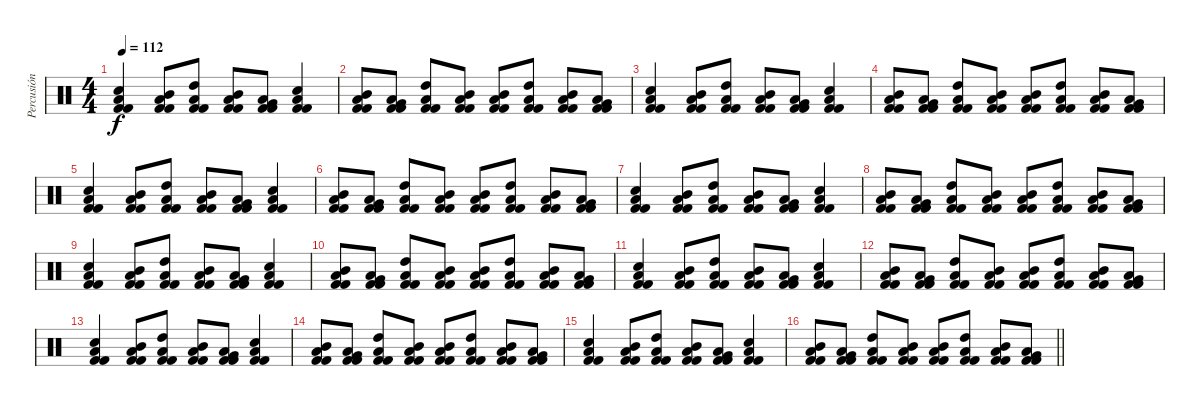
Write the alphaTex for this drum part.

\track ("Percusión" "Percusión") {instrument percussion}
\staff {score}
\articulation defaults
\ts (4 4)
\tempo 112
\clef neutral
\ks c
("Kick (hit) 2" "Electric Snare (hit)" "Low Tom (hit)" "Kick (hit) 2").4{dy f} ("Kick (hit) 2" "Mid Tom (hit)" "Low Tom (hit)" "Kick (hit) 2").8 ("Kick (hit) 2" "High Tom (hit)" "Low Tom (hit)" "Kick (hit) 2").8 ("Kick (hit) 2" "Mid Tom (hit)" "Low Tom (hit)" "Kick (hit) 2").8 ("Kick (hit) 2" "Low Tom (hit)" "Very Low Tom (hit)" "Kick (hit) 2").8 ("Kick (hit) 2" "Electric Snare (hit)" "Low Tom (hit)" "Kick (hit) 2").4 |
("Kick (hit) 2" "Low Tom (hit)" "Mid Tom (hit)" "Kick (hit) 2").8 ("Kick (hit) 2" "Very Low Tom (hit)" "Low Tom (hit)" "Kick (hit) 2").8 ("Kick (hit) 2" "High Tom (hit)" "Low Tom (hit)" "Kick (hit) 2").8 ("Kick (hit) 2" "Low Tom (hit)" "Mid Tom (hit)" "Kick (hit) 2").8 ("Kick (hit) 2" "Low Tom (hit)" "Mid Tom (hit)" "Kick (hit) 2").8 ("Kick (hit) 2" "High Tom (hit)" "Low Tom (hit)" "Kick (hit) 2").8 ("Kick (hit) 2" "Low Tom (hit)" "Mid Tom (hit)" "Kick (hit) 2").8 ("Kick (hit) 2" "Very Low Tom (hit)" "Low Tom (hit)" "Kick (hit) 2").8 |
("Kick (hit) 2" "Electric Snare (hit)" "Low Tom (hit)" "Kick (hit) 2").4 ("Kick (hit) 2" "Mid Tom (hit)" "Low Tom (hit)" "Kick (hit) 2").8 ("Kick (hit) 2" "High Tom (hit)" "Low Tom (hit)" "Kick (hit) 2").8 ("Kick (hit) 2" "Mid Tom (hit)" "Low Tom (hit)" "Kick (hit) 2").8 ("Kick (hit) 2" "Low Tom (hit)" "Very Low Tom (hit)" "Kick (hit) 2").8 ("Kick (hit) 2" "Electric Snare (hit)" "Low Tom (hit)" "Kick (hit) 2").4 |
("Kick (hit) 2" "Low Tom (hit)" "Mid Tom (hit)" "Kick (hit) 2").8 ("Kick (hit) 2" "Very Low Tom (hit)" "Low Tom (hit)" "Kick (hit) 2").8 ("Kick (hit) 2" "High Tom (hit)" "Low Tom (hit)" "Kick (hit) 2").8 ("Kick (hit) 2" "Low Tom (hit)" "Mid Tom (hit)" "Kick (hit) 2").8 ("Kick (hit) 2" "Low Tom (hit)" "Mid Tom (hit)" "Kick (hit) 2").8 ("Kick (hit) 2" "High Tom (hit)" "Low Tom (hit)" "Kick (hit) 2").8 ("Kick (hit) 2" "Low Tom (hit)" "Mid Tom (hit)" "Kick (hit) 2").8 ("Kick (hit) 2" "Very Low Tom (hit)" "Low Tom (hit)" "Kick (hit) 2").8 |
("Kick (hit) 2" "Electric Snare (hit)" "Low Tom (hit)" "Kick (hit) 2").4 ("Kick (hit) 2" "Mid Tom (hit)" "Low Tom (hit)" "Kick (hit) 2").8 ("Kick (hit) 2" "High Tom (hit)" "Low Tom (hit)" "Kick (hit) 2").8 ("Kick (hit) 2" "Mid Tom (hit)" "Low Tom (hit)" "Kick (hit) 2").8 ("Kick (hit) 2" "Low Tom (hit)" "Very Low Tom (hit)" "Kick (hit) 2").8 ("Kick (hit) 2" "Electric Snare (hit)" "Low Tom (hit)" "Kick (hit) 2").4 |
("Kick (hit) 2" "Low Tom (hit)" "Mid Tom (hit)" "Kick (hit) 2").8 ("Kick (hit) 2" "Very Low Tom (hit)" "Low Tom (hit)" "Kick (hit) 2").8 ("Kick (hit) 2" "High Tom (hit)" "Low Tom (hit)" "Kick (hit) 2").8 ("Kick (hit) 2" "Low Tom (hit)" "Mid Tom (hit)" "Kick (hit) 2").8 ("Kick (hit) 2" "Low Tom (hit)" "Mid Tom (hit)" "Kick (hit) 2").8 ("Kick (hit) 2" "High Tom (hit)" "Low Tom (hit)" "Kick (hit) 2").8 ("Kick (hit) 2" "Low Tom (hit)" "Mid Tom (hit)" "Kick (hit) 2").8 ("Kick (hit) 2" "Very Low Tom (hit)" "Low Tom (hit)" "Kick (hit) 2").8 |
("Kick (hit) 2" "Electric Snare (hit)" "Low Tom (hit)" "Kick (hit) 2").4 ("Kick (hit) 2" "Mid Tom (hit)" "Low Tom (hit)" "Kick (hit) 2").8 ("Kick (hit) 2" "High Tom (hit)" "Low Tom (hit)" "Kick (hit) 2").8 ("Kick (hit) 2" "Mid Tom (hit)" "Low Tom (hit)" "Kick (hit) 2").8 ("Kick (hit) 2" "Low Tom (hit)" "Very Low Tom (hit)" "Kick (hit) 2").8 ("Kick (hit) 2" "Electric Snare (hit)" "Low Tom (hit)" "Kick (hit) 2").4 |
("Kick (hit) 2" "Low Tom (hit)" "Mid Tom (hit)" "Kick (hit) 2").8 ("Kick (hit) 2" "Very Low Tom (hit)" "Low Tom (hit)" "Kick (hit) 2").8 ("Kick (hit) 2" "High Tom (hit)" "Low Tom (hit)" "Kick (hit) 2").8 ("Kick (hit) 2" "Low Tom (hit)" "Mid Tom (hit)" "Kick (hit) 2").8 ("Kick (hit) 2" "Low Tom (hit)" "Mid Tom (hit)" "Kick (hit) 2").8 ("Kick (hit) 2" "High Tom (hit)" "Low Tom (hit)" "Kick (hit) 2").8 ("Kick (hit) 2" "Low Tom (hit)" "Mid Tom (hit)" "Kick (hit) 2").8 ("Kick (hit) 2" "Very Low Tom (hit)" "Low Tom (hit)" "Kick (hit) 2").8 |
("Kick (hit) 2" "Electric Snare (hit)" "Low Tom (hit)" "Kick (hit) 2").4 ("Kick (hit) 2" "Mid Tom (hit)" "Low Tom (hit)" "Kick (hit) 2").8 ("Kick (hit) 2" "High Tom (hit)" "Low Tom (hit)" "Kick (hit) 2").8 ("Kick (hit) 2" "Mid Tom (hit)" "Low Tom (hit)" "Kick (hit) 2").8 ("Kick (hit) 2" "Low Tom (hit)" "Very Low Tom (hit)" "Kick (hit) 2").8 ("Kick (hit) 2" "Electric Snare (hit)" "Low Tom (hit)" "Kick (hit) 2").4 |
("Kick (hit) 2" "Low Tom (hit)" "Mid Tom (hit)" "Kick (hit) 2").8 ("Kick (hit) 2" "Very Low Tom (hit)" "Low Tom (hit)" "Kick (hit) 2").8 ("Kick (hit) 2" "High Tom (hit)" "Low Tom (hit)" "Kick (hit) 2").8 ("Kick (hit) 2" "Low Tom (hit)" "Mid Tom (hit)" "Kick (hit) 2").8 ("Kick (hit) 2" "Low Tom (hit)" "Mid Tom (hit)" "Kick (hit) 2").8 ("Kick (hit) 2" "High Tom (hit)" "Low Tom (hit)" "Kick (hit) 2").8 ("Kick (hit) 2" "Low Tom (hit)" "Mid Tom (hit)" "Kick (hit) 2").8 ("Kick (hit) 2" "Very Low Tom (hit)" "Low Tom (hit)" "Kick (hit) 2").8 |
("Kick (hit) 2" "Electric Snare (hit)" "Low Tom (hit)" "Kick (hit) 2").4 ("Kick (hit) 2" "Mid Tom (hit)" "Low Tom (hit)" "Kick (hit) 2").8 ("Kick (hit) 2" "High Tom (hit)" "Low Tom (hit)" "Kick (hit) 2").8 ("Kick (hit) 2" "Mid Tom (hit)" "Low Tom (hit)" "Kick (hit) 2").8 ("Kick (hit) 2" "Low Tom (hit)" "Very Low Tom (hit)" "Kick (hit) 2").8 ("Kick (hit) 2" "Electric Snare (hit)" "Low Tom (hit)" "Kick (hit) 2").4 |
("Kick (hit) 2" "Low Tom (hit)" "Mid Tom (hit)" "Kick (hit) 2").8 ("Kick (hit) 2" "Very Low Tom (hit)" "Low Tom (hit)" "Kick (hit) 2").8 ("Kick (hit) 2" "High Tom (hit)" "Low Tom (hit)" "Kick (hit) 2").8 ("Kick (hit) 2" "Low Tom (hit)" "Mid Tom (hit)" "Kick (hit) 2").8 ("Kick (hit) 2" "Low Tom (hit)" "Mid Tom (hit)" "Kick (hit) 2").8 ("Kick (hit) 2" "High Tom (hit)" "Low Tom (hit)" "Kick (hit) 2").8 ("Kick (hit) 2" "Low Tom (hit)" "Mid Tom (hit)" "Kick (hit) 2").8 ("Kick (hit) 2" "Very Low Tom (hit)" "Low Tom (hit)" "Kick (hit) 2").8 |
("Kick (hit) 2" "Electric Snare (hit)" "Low Tom (hit)" "Kick (hit) 2").4 ("Kick (hit) 2" "Mid Tom (hit)" "Low Tom (hit)" "Kick (hit) 2").8 ("Kick (hit) 2" "High Tom (hit)" "Low Tom (hit)" "Kick (hit) 2").8 ("Kick (hit) 2" "Mid Tom (hit)" "Low Tom (hit)" "Kick (hit) 2").8 ("Kick (hit) 2" "Low Tom (hit)" "Very Low Tom (hit)" "Kick (hit) 2").8 ("Kick (hit) 2" "Electric Snare (hit)" "Low Tom (hit)" "Kick (hit) 2").4 |
("Kick (hit) 2" "Low Tom (hit)" "Mid Tom (hit)" "Kick (hit) 2").8 ("Kick (hit) 2" "Very Low Tom (hit)" "Low Tom (hit)" "Kick (hit) 2").8 ("Kick (hit) 2" "High Tom (hit)" "Low Tom (hit)" "Kick (hit) 2").8 ("Kick (hit) 2" "Low Tom (hit)" "Mid Tom (hit)" "Kick (hit) 2").8 ("Kick (hit) 2" "Low Tom (hit)" "Mid Tom (hit)" "Kick (hit) 2").8 ("Kick (hit) 2" "High Tom (hit)" "Low Tom (hit)" "Kick (hit) 2").8 ("Kick (hit) 2" "Low Tom (hit)" "Mid Tom (hit)" "Kick (hit) 2").8 ("Kick (hit) 2" "Very Low Tom (hit)" "Low Tom (hit)" "Kick (hit) 2").8 |
("Kick (hit) 2" "Electric Snare (hit)" "Low Tom (hit)" "Kick (hit) 2").4 ("Kick (hit) 2" "Mid Tom (hit)" "Low Tom (hit)" "Kick (hit) 2").8 ("Kick (hit) 2" "High Tom (hit)" "Low Tom (hit)" "Kick (hit) 2").8 ("Kick (hit) 2" "Mid Tom (hit)" "Low Tom (hit)" "Kick (hit) 2").8 ("Kick (hit) 2" "Low Tom (hit)" "Very Low Tom (hit)" "Kick (hit) 2").8 ("Kick (hit) 2" "Electric Snare (hit)" "Low Tom (hit)" "Kick (hit) 2").4 |
\barLineRight lightlight
("Kick (hit) 2" "Low Tom (hit)" "Mid Tom (hit)" "Kick (hit) 2").8 ("Kick (hit) 2" "Very Low Tom (hit)" "Low Tom (hit)" "Kick (hit) 2").8 ("Kick (hit) 2" "High Tom (hit)" "Low Tom (hit)" "Kick (hit) 2").8 ("Kick (hit) 2" "Low Tom (hit)" "Mid Tom (hit)" "Kick (hit) 2").8 ("Kick (hit) 2" "Low Tom (hit)" "Mid Tom (hit)" "Kick (hit) 2").8 ("Kick (hit) 2" "High Tom (hit)" "Low Tom (hit)" "Kick (hit) 2").8 ("Kick (hit) 2" "Low Tom (hit)" "Mid Tom (hit)" "Kick (hit) 2").8 ("Kick (hit) 2" "Very Low Tom (hit)" "Low Tom (hit)" "Kick (hit) 2").8
